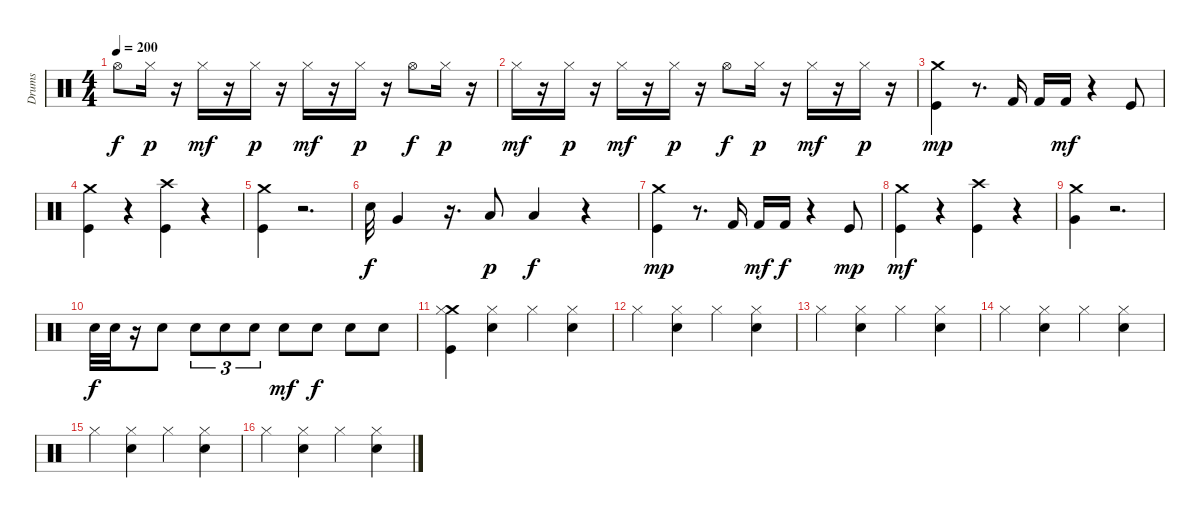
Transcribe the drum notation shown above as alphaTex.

\track ("Drums" "Drums") {instrument percussion}
\staff {score}
\articulation defaults
\ts (4 4)
\tempo 200
\clef neutral
\ks c "Hi-Hat (open)".8{dy f} "Hi-Hat (closed)".16{dy p}
r.16 "Hi-Hat (closed)".16{dy mf} r.16 "Hi-Hat (closed)".16{dy p} r.16 "Hi-Hat (closed)".16{dy mf} r.16 "Hi-Hat (closed)".16{dy p} r.16 "Hi-Hat (open)".8{dy f} "Hi-Hat (closed)".16{dy p} r.16 |
"Hi-Hat (closed)".16{dy mf} r.16 "Hi-Hat (closed)".16{dy p} r.16 "Hi-Hat (closed)".16{dy mf} r.16 "Hi-Hat (closed)".16{dy p} r.16 "Hi-Hat (open)".8{dy f} "Hi-Hat (closed)".16{dy p} r.16 "Hi-Hat (closed)".16{dy mf} r.16 "Hi-Hat (closed)".16{dy p} r.16 |
("Crash medium (hit)" "Kick (hit)").4{dy mp} r.8{d} "Kick (hit) 2".16 "Kick (hit) 2".16 "Kick (hit) 2".16{dy mf} r.4 "Kick (hit)".8 |
("Kick (hit)" "Crash medium (hit)").4 r.4 ("Crash high (hit)" "Kick (hit)").4 r.4 |
("Crash medium (hit)" "Kick (hit)").4 r.2{d} |
"Snare (hit) 2".32{dy f} "Very Low Tom (hit)".4 r.16{d} "Low Tom (hit)".8{dy p} "Low Floor Tom (hit)".4{dy f} r.4 |
("Crash medium (hit)" "Kick (hit)").4{dy mp} r.8{d} "Kick (hit) 2".16 "Kick (hit) 2".16{dy mf} "Kick (hit) 2".16{dy f} r.4 "Kick (hit)".8{dy mp} |
("Kick (hit)" "Crash medium (hit)").4{dy mf} r.4 ("Crash high (hit)" "Kick (hit)").4 r.4 |
("Crash medium (hit)" "Very Low Tom (hit)").4 r.2{d} |
"Electric Snare (hit)".32{dy f} "Electric Snare (hit)".32 r.16 "Electric Snare (hit)".8 "Electric Snare (hit)".8{tu (3 2)} "Electric Snare (hit)".8{tu (3 2)} "Electric Snare (hit)".8{tu (3 2)} "Electric Snare (hit)".8{dy mf} "Electric Snare (hit)".8{dy f} "Electric Snare (hit)".8 "Electric Snare (hit)".8 |
("Kick (hit)" "Crash medium (hit)" "Hi-Hat (closed)").4 ("Hi-Hat (closed)" "Snare (hit) 2").4 "Hi-Hat (closed)".4 ("Hi-Hat (closed)" "Snare (hit) 2").4 |
"Hi-Hat (closed)".4 ("Snare (hit) 2" "Hi-Hat (closed)").4 "Hi-Hat (closed)".4 ("Snare (hit) 2" "Hi-Hat (closed)").4 |
"Hi-Hat (closed)".4 ("Snare (hit) 2" "Hi-Hat (closed)").4 "Hi-Hat (closed)".4 ("Snare (hit) 2" "Hi-Hat (closed)").4 |
"Hi-Hat (closed)".4 ("Snare (hit) 2" "Hi-Hat (closed)").4 "Hi-Hat (closed)".4 ("Snare (hit) 2" "Hi-Hat (closed)").4 |
"Hi-Hat (closed)".4 ("Snare (hit) 2" "Hi-Hat (closed)").4 "Hi-Hat (closed)".4 ("Snare (hit) 2" "Hi-Hat (closed)").4 |
"Hi-Hat (closed)".4 ("Snare (hit) 2" "Hi-Hat (closed)").4 "Hi-Hat (closed)".4 ("Snare (hit) 2" "Hi-Hat (closed)").4
